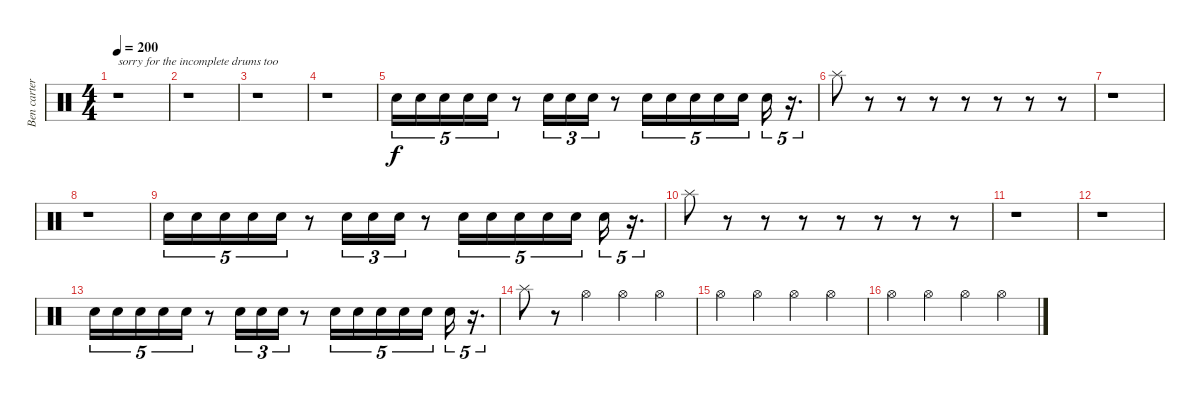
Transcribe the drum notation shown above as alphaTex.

\track ("Ben carter" "Ben carter") {instrument percussion}
\staff {score}
\articulation defaults
\ts (4 4)
\tempo 200
\clef neutral
\ks c
r.1{txt "sorry for the incomplete drums too " dy f} |
r.1 |
r.1 |
r.1 |
"Electric Snare (hit)".16{tu (5 4)} "Electric Snare (hit)".16{tu (5 4)} "Electric Snare (hit)".16{tu (5 4)} "Electric Snare (hit)".16{tu (5 4)} "Electric Snare (hit)".16{tu (5 4)} r.8 "Electric Snare (hit)".16{tu (3 2)} "Electric Snare (hit)".16{tu (3 2)} "Electric Snare (hit)".16{tu (3 2)} r.8 "Electric Snare (hit)".16{tu (5 4)} "Electric Snare (hit)".16{tu (5 4)} "Electric Snare (hit)".16{tu (5 4)} "Electric Snare (hit)".16{tu (5 4)} "Electric Snare (hit)".16{tu (5 4) beam splitsecondary} "Electric Snare (hit)".16{tu (5 4)} r.16{d tu (5 4)} |
"Splash (hit)".8 r.8 r.8 r.8 r.8 r.8 r.8 r.8 |
r.1 |
r.1 |
"Electric Snare (hit)".16{tu (5 4)} "Electric Snare (hit)".16{tu (5 4)} "Electric Snare (hit)".16{tu (5 4)} "Electric Snare (hit)".16{tu (5 4)} "Electric Snare (hit)".16{tu (5 4)} r.8 "Electric Snare (hit)".16{tu (3 2)} "Electric Snare (hit)".16{tu (3 2)} "Electric Snare (hit)".16{tu (3 2)} r.8 "Electric Snare (hit)".16{tu (5 4)} "Electric Snare (hit)".16{tu (5 4)} "Electric Snare (hit)".16{tu (5 4)} "Electric Snare (hit)".16{tu (5 4)} "Electric Snare (hit)".16{tu (5 4) beam splitsecondary} "Electric Snare (hit)".16{tu (5 4)} r.16{d tu (5 4)} |
"Splash (hit)".8 r.8 r.8 r.8 r.8 r.8 r.8 r.8 |
r.1 |
r.1 |
"Electric Snare (hit)".16{tu (5 4)} "Electric Snare (hit)".16{tu (5 4)} "Electric Snare (hit)".16{tu (5 4)} "Electric Snare (hit)".16{tu (5 4)} "Electric Snare (hit)".16{tu (5 4)} r.8 "Electric Snare (hit)".16{tu (3 2)} "Electric Snare (hit)".16{tu (3 2)} "Electric Snare (hit)".16{tu (3 2)} r.8 "Electric Snare (hit)".16{tu (5 4)} "Electric Snare (hit)".16{tu (5 4)} "Electric Snare (hit)".16{tu (5 4)} "Electric Snare (hit)".16{tu (5 4)} "Electric Snare (hit)".16{tu (5 4) beam splitsecondary} "Electric Snare (hit)".16{tu (5 4)} r.16{d tu (5 4)} |
"Splash (hit)".8 r.8 "Hi-Hat (open)".4 "Hi-Hat (open)".4 "Hi-Hat (open)".4 |
"Hi-Hat (open)".4 "Hi-Hat (open)".4 "Hi-Hat (open)".4 "Hi-Hat (open)".4 |
"Hi-Hat (open)".4 "Hi-Hat (open)".4 "Hi-Hat (open)".4 "Hi-Hat (open)".4
